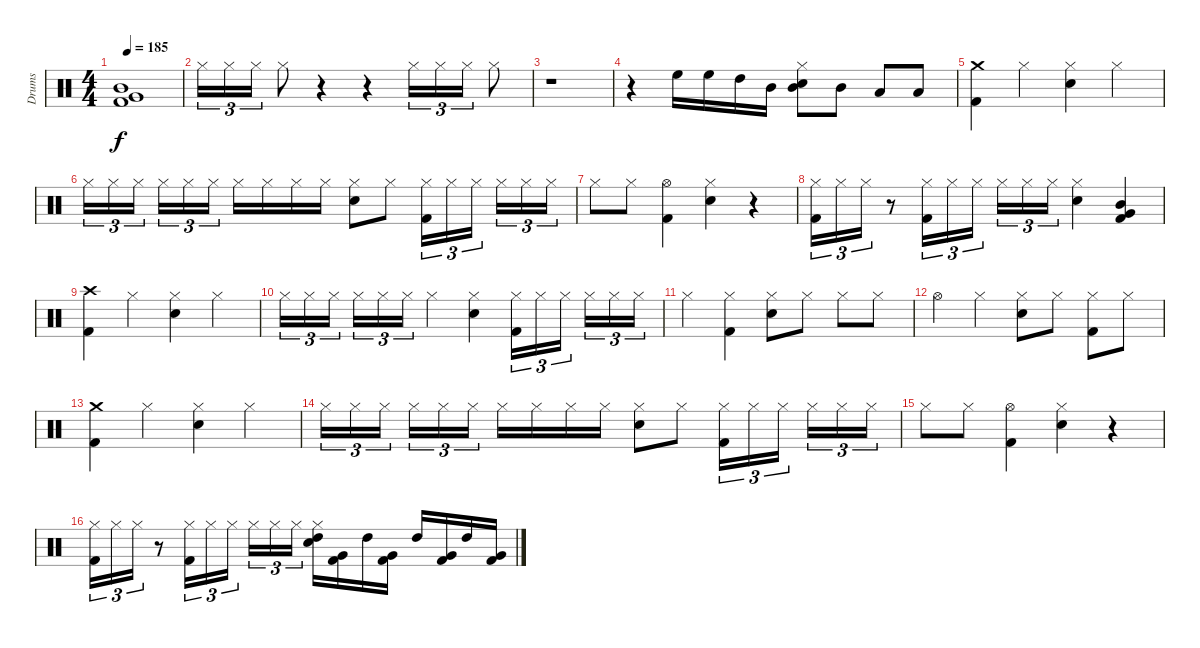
\track ("Drums" "Drums") {instrument percussion}
\staff {score}
\articulation defaults
\ts (4 4)
\tempo 185
\clef neutral
\ks c
("Mid Tom (hit)" "Very Low Tom (hit)" "Kick (hit) 2").1{dy f} |
"Hi-Hat (closed)".16{tu (3 2)} "Hi-Hat (closed)".16{tu (3 2)} "Hi-Hat (closed)".16{tu (3 2)} "Hi-Hat (closed)".8 r.4 r.4 "Hi-Hat (closed)".16{tu (3 2)} "Hi-Hat (closed)".16{tu (3 2)} "Hi-Hat (closed)".16{tu (3 2)} "Hi-Hat (closed)".8 |
r.1 |
r.4 "High Floor Tom (hit)".16 "High Floor Tom (hit)".16 "High Tom (hit)".16 "Mid Tom (hit)".16 ("Mid Tom (hit)" "Hi-Hat (closed)" "Snare (hit) 2").8 "Mid Tom (hit)".8 "Low Tom (hit)".8 "Low Floor Tom (hit)".8 |
("Crash medium (hit)" "Kick (hit) 2").4 "Hi-Hat (closed)".4 ("Hi-Hat (closed)" "Snare (hit) 2").4 "Hi-Hat (closed)".4 |
"Hi-Hat (closed)".16{tu (3 2)} "Hi-Hat (closed)".16{tu (3 2)} "Hi-Hat (closed)".16{tu (3 2)} "Hi-Hat (closed)".16{tu (3 2)} "Hi-Hat (closed)".16{tu (3 2)} "Hi-Hat (closed)".16{tu (3 2)} "Hi-Hat (closed)".16 "Hi-Hat (closed)".16 "Hi-Hat (closed)".16 "Hi-Hat (closed)".16 ("Hi-Hat (closed)" "Snare (hit) 2").8 "Hi-Hat (closed)".8 ("Hi-Hat (closed)" "Kick (hit) 2").16{tu (3 2)} "Hi-Hat (closed)".16{tu (3 2)} "Hi-Hat (closed)".16{tu (3 2)} "Hi-Hat (closed)".16{tu (3 2)} "Hi-Hat (closed)".16{tu (3 2)} "Hi-Hat (closed)".16{tu (3 2)} |
"Hi-Hat (closed)".8 "Hi-Hat (closed)".8 ("Hi-Hat (open)" "Kick (hit) 2").4 ("Hi-Hat (closed)" "Snare (hit) 2").4 r.4 |
("Hi-Hat (closed)" "Kick (hit) 2").16{tu (3 2)} "Hi-Hat (closed)".16{tu (3 2)} "Hi-Hat (closed)".16{tu (3 2)} r.8 ("Hi-Hat (closed)" "Kick (hit) 2").16{tu (3 2)} "Hi-Hat (closed)".16{tu (3 2)} "Hi-Hat (closed)".16{tu (3 2)} "Hi-Hat (closed)".16{tu (3 2)} "Hi-Hat (closed)".16{tu (3 2)} "Hi-Hat (closed)".16{tu (3 2)} ("Hi-Hat (closed)" "Snare (hit) 2").4 ("Mid Tom (hit)" "Very Low Tom (hit)" "Kick (hit) 2").4 |
("Crash high (hit)" "Kick (hit) 2").4 "Hi-Hat (closed)".4 ("Hi-Hat (closed)" "Snare (hit) 2").4 "Hi-Hat (closed)".4 |
"Hi-Hat (closed)".16{tu (3 2)} "Hi-Hat (closed)".16{tu (3 2)} "Hi-Hat (closed)".16{tu (3 2)} "Hi-Hat (closed)".16{tu (3 2)} "Hi-Hat (closed)".16{tu (3 2)} "Hi-Hat (closed)".16{tu (3 2)} "Hi-Hat (closed)".4 ("Hi-Hat (closed)" "Snare (hit) 2").4 ("Hi-Hat (closed)" "Kick (hit) 2").16{tu (3 2)} "Hi-Hat (closed)".16{tu (3 2)} "Hi-Hat (closed)".16{tu (3 2)} "Hi-Hat (closed)".16{tu (3 2)} "Hi-Hat (closed)".16{tu (3 2)} "Hi-Hat (closed)".16{tu (3 2)} |
"Hi-Hat (closed)".4 ("Hi-Hat (closed)" "Kick (hit) 2").4 ("Hi-Hat (closed)" "Snare (hit) 2").8 "Hi-Hat (closed)".8 "Hi-Hat (closed)".8 "Hi-Hat (closed)".8 |
"Hi-Hat (open)".4 "Hi-Hat (closed)".4 ("Hi-Hat (closed)" "Snare (hit) 2").8 "Hi-Hat (closed)".8 ("Hi-Hat (closed)" "Kick (hit) 2").8 "Hi-Hat (closed)".8 |
("Crash medium (hit)" "Kick (hit) 2").4 "Hi-Hat (closed)".4 ("Hi-Hat (closed)" "Snare (hit) 2").4 "Hi-Hat (closed)".4 |
"Hi-Hat (closed)".16{tu (3 2)} "Hi-Hat (closed)".16{tu (3 2)} "Hi-Hat (closed)".16{tu (3 2)} "Hi-Hat (closed)".16{tu (3 2)} "Hi-Hat (closed)".16{tu (3 2)} "Hi-Hat (closed)".16{tu (3 2)} "Hi-Hat (closed)".16 "Hi-Hat (closed)".16 "Hi-Hat (closed)".16 "Hi-Hat (closed)".16 ("Hi-Hat (closed)" "Snare (hit) 2").8 "Hi-Hat (closed)".8 ("Hi-Hat (closed)" "Kick (hit) 2").16{tu (3 2)} "Hi-Hat (closed)".16{tu (3 2)} "Hi-Hat (closed)".16{tu (3 2)} "Hi-Hat (closed)".16{tu (3 2)} "Hi-Hat (closed)".16{tu (3 2)} "Hi-Hat (closed)".16{tu (3 2)} |
"Hi-Hat (closed)".8 "Hi-Hat (closed)".8 ("Hi-Hat (open)" "Kick (hit) 2").4 ("Hi-Hat (closed)" "Snare (hit) 2").4 r.4 |
("Hi-Hat (closed)" "Kick (hit) 2").16{tu (3 2)} "Hi-Hat (closed)".16{tu (3 2)} "Hi-Hat (closed)".16{tu (3 2)} r.8 ("Hi-Hat (closed)" "Kick (hit) 2").16{tu (3 2)} "Hi-Hat (closed)".16{tu (3 2)} "Hi-Hat (closed)".16{tu (3 2)} "Hi-Hat (closed)".16{tu (3 2)} "Hi-Hat (closed)".16{tu (3 2)} "Hi-Hat (closed)".16{tu (3 2)} ("High Tom (hit)" "Hi-Hat (closed)" "Snare (hit) 2").16 ("Very Low Tom (hit)" "Kick (hit) 2").16 "High Tom (hit)".16 ("Very Low Tom (hit)" "Kick (hit) 2").16 "High Tom (hit)".16 ("Very Low Tom (hit)" "Kick (hit) 2").16 "High Tom (hit)".16 ("Very Low Tom (hit)" "Kick (hit) 2").16
